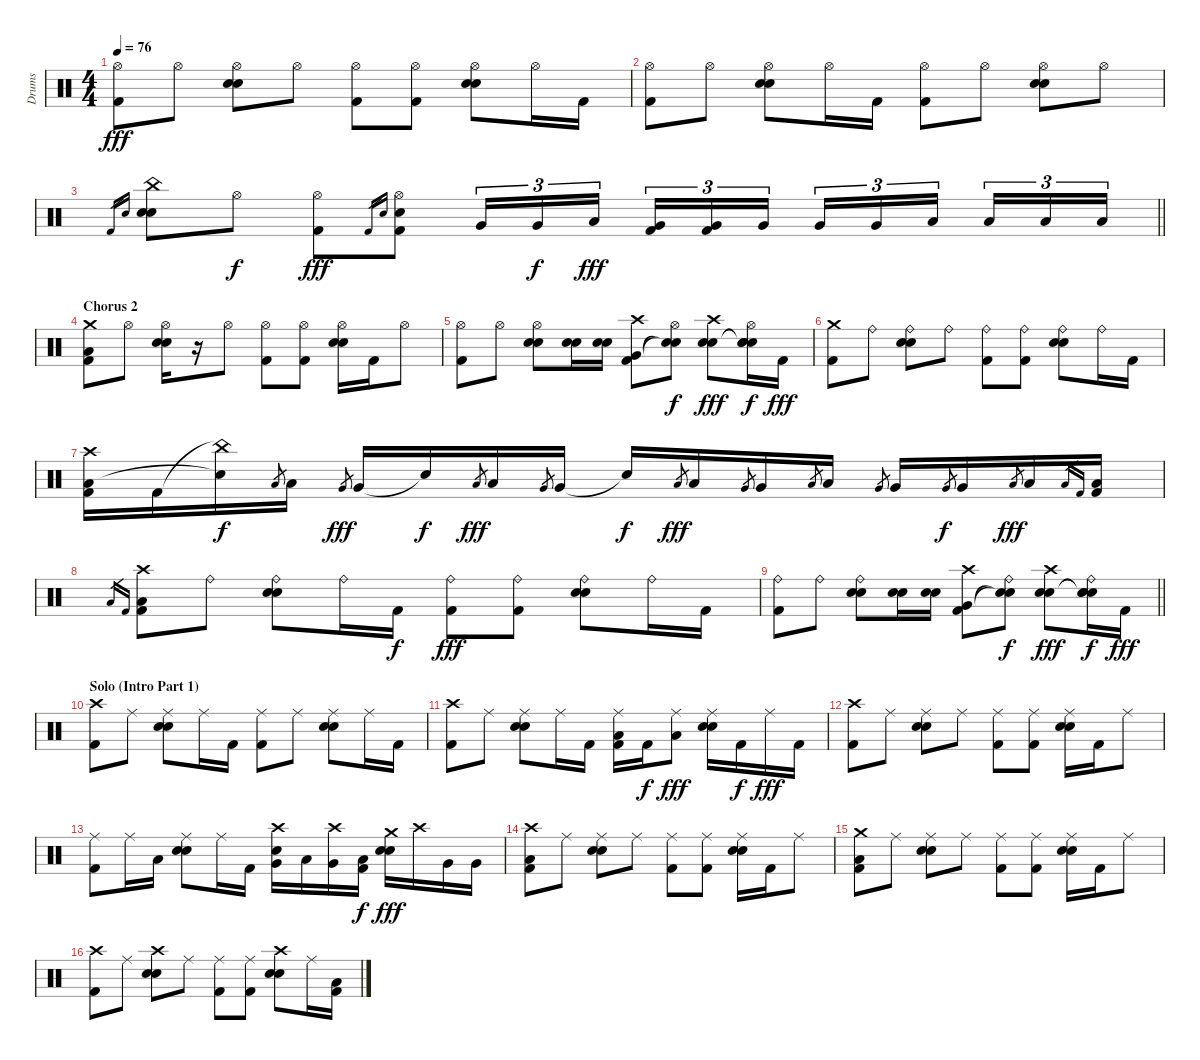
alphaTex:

\track ("Drums" "Drums") {instrument percussion}
\staff {score}
\articulation defaults
\ts (4 4)
\tempo 76
\clef neutral
\ks c
("Hi-Hat (open)" "Kick (hit) 2").8{dy fff} "Hi-Hat (open)".8 ("Hi-Hat (open)" "Snare (hit) 2" "Electric Snare (hit)").8 "Hi-Hat (open)".8 ("Hi-Hat (open)" "Kick (hit) 2").8 ("Hi-Hat (open)" "Kick (hit) 2").8 ("Hi-Hat (open)" "Snare (hit) 2" "Electric Snare (hit)").8 "Hi-Hat (open)".16 "Kick (hit) 2".16 |
("Hi-Hat (open)" "Kick (hit) 2").8 "Hi-Hat (open)".8 ("Hi-Hat (open)" "Snare (hit) 2" "Electric Snare (hit)").8 "Hi-Hat (open)".16 "Kick (hit) 2".16 ("Hi-Hat (open)" "Kick (hit) 2").8 "Hi-Hat (open)".8 ("Hi-Hat (open)" "Snare (hit) 2" "Electric Snare (hit)").8 "Hi-Hat (open)".8 |
\barLineRight lightlight "Kick (hit) 2".16{gr} "Electric Snare (hit)".16{gr}
("China (hit)" "Snare (hit) 2" "Electric Snare (hit)").8 "Hi-Hat (open)".8{dy f} ("Hi-Hat (open)" "Kick (hit) 2").8{dy fff} "Kick (hit) 2".16{gr} "Electric Snare (hit)".16{gr} ("Hi-Hat (open)" "Kick (hit) 2" "Electric Snare (hit)").8 "Very Low Tom (hit)".16{tu (3 2)} "Very Low Tom (hit)".16{tu (3 2) dy f} "Low Floor Tom (hit)".16{tu (3 2) dy fff beam splitsecondary} ("Very Low Tom (hit)" "Kick (hit) 2").16{tu (3 2)} ("Very Low Tom (hit)" "Kick (hit) 2").16{tu (3 2)} "Very Low Tom (hit)".16{tu (3 2)} "Very Low Tom (hit)".16{tu (3 2)} "Very Low Tom (hit)".16{tu (3 2)} "Low Tom (hit)".16{tu (3 2) beam splitsecondary} "Low Floor Tom (hit)".16{tu (3 2)} "Low Floor Tom (hit)".16{tu (3 2)} "Low Tom (hit)".16{tu (3 2)} |
\section ("" "Chorus 2")
("Crash medium (hit)" "Low Floor Tom (hit)" "Kick (hit) 2").8 "Hi-Hat (open)".8 ("Hi-Hat (open)" "Snare (hit) 2" "Electric Snare (hit)").16 r.16 "Hi-Hat (open)".8 ("Hi-Hat (open)" "Kick (hit) 2").8 ("Hi-Hat (open)" "Kick (hit) 2").8 ("Hi-Hat (open)" "Snare (hit) 2" "Electric Snare (hit)").16 "Kick (hit) 2".16 "Hi-Hat (open)".8 |
("Hi-Hat (open)" "Kick (hit) 2").8 "Hi-Hat (open)".8 ("Hi-Hat (open)" "Snare (hit) 2" "Electric Snare (hit)").8 ("Snare (hit) 2" "Electric Snare (hit)").16 ("Snare (hit) 2" "Electric Snare (hit)").16 ("Crash high (hit)" "Very Low Tom (hit)" "Kick (hit) 2").8 ("Hi-Hat (open)" "Snare (hit)"{t} "Snare (hit)"{t}).8{dy f} ("Crash high (hit)" "Snare (hit) 2" "Electric Snare (hit)").8{dy fff} ("Hi-Hat (open)" "Snare (hit)"{t} "Snare (hit)"{t} "Snare (hit)").16{dy f} "Kick (hit) 2".16{dy fff} |
("Crash medium (hit)" "Kick (hit) 2").8 "Ride (bell)".8 ("Ride (bell)" "Snare (hit) 2" "Electric Snare (hit)").8 "Ride (bell)".8 ("Ride (bell)" "Kick (hit) 2").8 ("Ride (bell)" "Kick (hit) 2").8 ("Ride (bell)" "Snare (hit) 2" "Electric Snare (hit)").8 "Ride (bell)".16 "Kick (hit) 2".16 |
("Crash high (hit)" "Low Floor Tom (hit)" "Kick (hit) 2").16 "Kick (hit) 2".16 ("China (hit)"{t} "Snare (hit)"{t}).16{dy f} "Low Floor Tom (hit)".8{gr} "Low Floor Tom (hit)".16 "Very Low Tom (hit)".8{gr dy fff} "Very Low Tom (hit)".16 "Snare (hit)"{t}.16{dy f} "Low Floor Tom (hit)".8{gr dy fff} "Low Floor Tom (hit)".16 "Very Low Tom (hit)".8{gr} "Very Low Tom (hit)".16 "Snare (hit) 2"{t}.16{dy f} "Low Floor Tom (hit)".8{gr dy fff} "Low Floor Tom (hit)".16 "Very Low Tom (hit)".8{gr} "Very Low Tom (hit)".16 "Low Floor Tom (hit)".8{gr} "Low Floor Tom (hit)".16 "Very Low Tom (hit)".8{gr} "Very Low Tom (hit)".16 "Very Low Tom (hit)".8{gr dy f} "Very Low Tom (hit)".16 "Low Floor Tom (hit)".8{gr dy fff} "Low Floor Tom (hit)".16 "Low Floor Tom (hit)".16{gr} "Kick (hit) 2".16{gr} ("Low Floor Tom (hit)" "Kick (hit) 2").16 |
"Low Floor Tom (hit)".16{gr} "Kick (hit) 2".16{gr} ("Crash high (hit)" "Low Floor Tom (hit)" "Kick (hit) 2").8 "Ride (bell)".8 ("Ride (bell)" "Snare (hit) 2" "Electric Snare (hit)").8 "Ride (bell)".16 "Kick (hit) 2".16{dy f} ("Ride (bell)" "Kick (hit) 2").8{dy fff} ("Ride (bell)" "Kick (hit) 2").8 ("Ride (bell)" "Snare (hit) 2" "Electric Snare (hit)").8 "Ride (bell)".16 "Kick (hit) 2".16 |
\barLineRight lightlight
("Ride (bell)" "Kick (hit) 2").8 "Ride (bell)".8 ("Ride (bell)" "Snare (hit) 2" "Electric Snare (hit)").8 ("Snare (hit) 2" "Electric Snare (hit)").16 ("Snare (hit) 2" "Electric Snare (hit)").16 ("Crash high (hit)" "Very Low Tom (hit)" "Kick (hit) 2").8 ("Ride (bell)" "Snare (hit)"{t} "Snare (hit)"{t}).8{dy f} ("Crash high (hit)" "Snare (hit) 2" "Electric Snare (hit)").8{dy fff} ("Ride (bell)" "Snare (hit)"{t} "Snare (hit)"{t} "Snare (hit)").16{dy f} "Kick (hit) 2".16{dy fff} |
\section ("" "Solo (Intro Part 1)")
("Crash high (hit)" "Kick (hit) 2").8 "Ride (middle)".8 ("Ride (middle)" "Snare (hit) 2" "Electric Snare (hit)").8 "Ride (middle)".16 "Kick (hit) 2".16 ("Ride (middle)" "Kick (hit) 2").8 "Ride (middle)".8 ("Ride (middle)" "Snare (hit) 2" "Electric Snare (hit)").8 "Ride (middle)".16 "Kick (hit) 2".16 |
("Crash high (hit)" "Kick (hit) 2").8 "Ride (middle)".8 ("Ride (middle)" "Snare (hit) 2" "Electric Snare (hit)").8 "Ride (middle)".16 "Kick (hit) 2".16 ("Ride (middle)" "Low Floor Tom (hit)" "Kick (hit) 2").16 "Kick (hit) 2".16{dy f} ("Ride (middle)" "Low Tom (hit)").8{dy fff} ("Ride (middle)" "Snare (hit) 2" "Electric Snare (hit)").16 "Kick (hit) 2".16{dy f} "Ride (middle)".16{dy fff} "Kick (hit) 2".16 |
("Crash high (hit)" "Kick (hit) 2").8 "Ride (middle)".8 ("Ride (middle)" "Snare (hit) 2" "Electric Snare (hit)").8 "Ride (middle)".8 ("Ride (middle)" "Kick (hit) 2").8 ("Ride (middle)" "Kick (hit) 2").8 ("Ride (middle)" "Snare (hit) 2" "Electric Snare (hit)").16 "Kick (hit) 2".16 "Ride (middle)".8 |
("Ride (middle)" "Kick (hit) 2").8 "Ride (middle)".16 "Low Floor Tom (hit)".16 ("Ride (middle)" "Snare (hit) 2" "Electric Snare (hit)").8 "Ride (middle)".16 "Kick (hit) 2".16 ("Crash high (hit)" "Very Low Tom (hit)" "Electric Snare (hit)").16 "Low Floor Tom (hit)".16 ("Crash high (hit)" "Very Low Tom (hit)").16 ("Low Floor Tom (hit)" "Kick (hit) 2").16{dy f} ("Crash medium (hit)" "Snare (hit) 2" "Electric Snare (hit)").16{dy fff} "Crash high (hit)".16 "Very Low Tom (hit)".16 "Very Low Tom (hit)".16 |
("Crash high (hit)" "Low Tom (hit)" "Kick (hit) 2").8 "Ride (middle)".8 ("Ride (middle)" "Snare (hit) 2" "Electric Snare (hit)").8 "Ride (middle)".8 ("Ride (middle)" "Kick (hit) 2").8 ("Ride (middle)" "Kick (hit) 2").8 ("Ride (middle)" "Snare (hit) 2" "Electric Snare (hit)").16 "Kick (hit) 2".16 "Ride (middle)".8 |
("Crash medium (hit)" "Low Tom (hit)" "Kick (hit) 2").8 "Ride (middle)".8 ("Ride (middle)" "Snare (hit) 2" "Electric Snare (hit)").8 "Ride (middle)".8 ("Ride (middle)" "Kick (hit) 2").8 ("Ride (middle)" "Kick (hit) 2").8 ("Ride (middle)" "Snare (hit) 2" "Electric Snare (hit)").16 "Kick (hit) 2".16 "Ride (middle)".8 |
("Crash high (hit)" "Kick (hit) 2").8 "Ride (middle)".8 ("Crash high (hit)" "Snare (hit) 2" "Electric Snare (hit)").8 "Ride (middle)".8 ("Ride (middle)" "Kick (hit) 2").8 ("Ride (middle)" "Kick (hit) 2").8 ("Crash high (hit)" "Snare (hit) 2" "Electric Snare (hit)").8 "Ride (middle)".16 ("Low Floor Tom (hit)" "Kick (hit) 2").16
